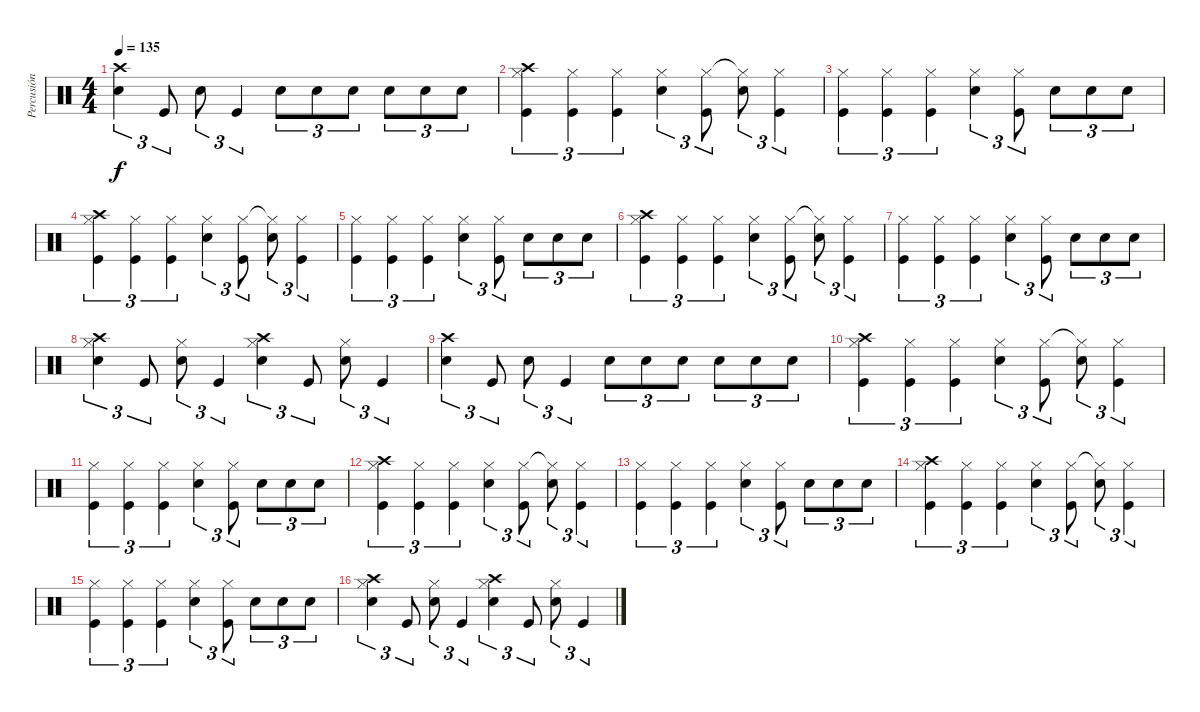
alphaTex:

\track ("Percusión" "Percusión") {instrument percussion}
\staff {score}
\articulation defaults
\ts (4 4)
\tempo 135
\clef neutral
\ks c
("Crash high (hit)" "Electric Snare (hit)").4{tu (3 2) dy f} "Kick (hit)".8{tu (3 2)} "Electric Snare (hit)".8{tu (3 2)} "Kick (hit)".4{tu (3 2)} "Electric Snare (hit)".8{tu (3 2)} "Electric Snare (hit)".8{tu (3 2)} "Electric Snare (hit)".8{tu (3 2)} "Electric Snare (hit)".8{tu (3 2)} "Electric Snare (hit)".8{tu (3 2)} "Electric Snare (hit)".8{tu (3 2)} |
("Hi-Hat (closed)" "Crash high (hit)" "Kick (hit)").4{tu (3 2)} ("Hi-Hat (closed)" "Kick (hit)").4{tu (3 2)} ("Hi-Hat (closed)" "Kick (hit)").4{tu (3 2)} ("Hi-Hat (closed)" "Electric Snare (hit)").4{tu (3 2)} ("Hi-Hat (closed)" "Kick (hit)").8{tu (3 2)} ("Hi-Hat (closed)"{t} "Electric Snare (hit)").8{tu (3 2)} ("Hi-Hat (closed)" "Kick (hit)").4{tu (3 2)} |
("Hi-Hat (closed)" "Kick (hit)").4{tu (3 2)} ("Hi-Hat (closed)" "Kick (hit)").4{tu (3 2)} ("Hi-Hat (closed)" "Kick (hit)").4{tu (3 2)} ("Hi-Hat (closed)" "Electric Snare (hit)").4{tu (3 2)} ("Hi-Hat (closed)" "Kick (hit)").8{tu (3 2)} "Electric Snare (hit)".8{tu (3 2)} "Electric Snare (hit)".8{tu (3 2)} "Electric Snare (hit)".8{tu (3 2)} |
("Hi-Hat (closed)" "Crash high (hit)" "Kick (hit)").4{tu (3 2)} ("Hi-Hat (closed)" "Kick (hit)").4{tu (3 2)} ("Hi-Hat (closed)" "Kick (hit)").4{tu (3 2)} ("Hi-Hat (closed)" "Electric Snare (hit)").4{tu (3 2)} ("Hi-Hat (closed)" "Kick (hit)").8{tu (3 2)} ("Hi-Hat (closed)"{t} "Electric Snare (hit)").8{tu (3 2)} ("Hi-Hat (closed)" "Kick (hit)").4{tu (3 2)} |
("Hi-Hat (closed)" "Kick (hit)").4{tu (3 2)} ("Hi-Hat (closed)" "Kick (hit)").4{tu (3 2)} ("Hi-Hat (closed)" "Kick (hit)").4{tu (3 2)} ("Hi-Hat (closed)" "Electric Snare (hit)").4{tu (3 2)} ("Hi-Hat (closed)" "Kick (hit)").8{tu (3 2)} "Electric Snare (hit)".8{tu (3 2)} "Electric Snare (hit)".8{tu (3 2)} "Electric Snare (hit)".8{tu (3 2)} |
("Hi-Hat (closed)" "Crash high (hit)" "Kick (hit)").4{tu (3 2)} ("Hi-Hat (closed)" "Kick (hit)").4{tu (3 2)} ("Hi-Hat (closed)" "Kick (hit)").4{tu (3 2)} ("Hi-Hat (closed)" "Electric Snare (hit)").4{tu (3 2)} ("Hi-Hat (closed)" "Kick (hit)").8{tu (3 2)} ("Hi-Hat (closed)"{t} "Electric Snare (hit)").8{tu (3 2)} ("Hi-Hat (closed)" "Kick (hit)").4{tu (3 2)} |
("Hi-Hat (closed)" "Kick (hit)").4{tu (3 2)} ("Hi-Hat (closed)" "Kick (hit)").4{tu (3 2)} ("Hi-Hat (closed)" "Kick (hit)").4{tu (3 2)} ("Hi-Hat (closed)" "Electric Snare (hit)").4{tu (3 2)} ("Hi-Hat (closed)" "Kick (hit)").8{tu (3 2)} "Electric Snare (hit)".8{tu (3 2)} "Electric Snare (hit)".8{tu (3 2)} "Electric Snare (hit)".8{tu (3 2)} |
("Hi-Hat (closed)" "Crash high (hit)" "Electric Snare (hit)").4{tu (3 2)} "Kick (hit)".8{tu (3 2)} ("Hi-Hat (closed)" "Electric Snare (hit)").8{tu (3 2)} "Kick (hit)".4{tu (3 2)} ("Hi-Hat (closed)" "Crash high (hit)" "Electric Snare (hit)").4{tu (3 2)} "Kick (hit)".8{tu (3 2)} ("Hi-Hat (closed)" "Electric Snare (hit)").8{tu (3 2)} "Kick (hit)".4{tu (3 2)} |
("Crash high (hit)" "Electric Snare (hit)").4{tu (3 2)} "Kick (hit)".8{tu (3 2)} "Electric Snare (hit)".8{tu (3 2)} "Kick (hit)".4{tu (3 2)} "Electric Snare (hit)".8{tu (3 2)} "Electric Snare (hit)".8{tu (3 2)} "Electric Snare (hit)".8{tu (3 2)} "Electric Snare (hit)".8{tu (3 2)} "Electric Snare (hit)".8{tu (3 2)} "Electric Snare (hit)".8{tu (3 2)} |
("Hi-Hat (closed)" "Crash high (hit)" "Kick (hit)").4{tu (3 2)} ("Hi-Hat (closed)" "Kick (hit)").4{tu (3 2)} ("Hi-Hat (closed)" "Kick (hit)").4{tu (3 2)} ("Hi-Hat (closed)" "Electric Snare (hit)").4{tu (3 2)} ("Hi-Hat (closed)" "Kick (hit)").8{tu (3 2)} ("Hi-Hat (closed)"{t} "Electric Snare (hit)").8{tu (3 2)} ("Hi-Hat (closed)" "Kick (hit)").4{tu (3 2)} |
("Hi-Hat (closed)" "Kick (hit)").4{tu (3 2)} ("Hi-Hat (closed)" "Kick (hit)").4{tu (3 2)} ("Hi-Hat (closed)" "Kick (hit)").4{tu (3 2)} ("Hi-Hat (closed)" "Electric Snare (hit)").4{tu (3 2)} ("Hi-Hat (closed)" "Kick (hit)").8{tu (3 2)} "Electric Snare (hit)".8{tu (3 2)} "Electric Snare (hit)".8{tu (3 2)} "Electric Snare (hit)".8{tu (3 2)} |
("Hi-Hat (closed)" "Crash high (hit)" "Kick (hit)").4{tu (3 2)} ("Hi-Hat (closed)" "Kick (hit)").4{tu (3 2)} ("Hi-Hat (closed)" "Kick (hit)").4{tu (3 2)} ("Hi-Hat (closed)" "Electric Snare (hit)").4{tu (3 2)} ("Hi-Hat (closed)" "Kick (hit)").8{tu (3 2)} ("Hi-Hat (closed)"{t} "Electric Snare (hit)").8{tu (3 2)} ("Hi-Hat (closed)" "Kick (hit)").4{tu (3 2)} |
("Hi-Hat (closed)" "Kick (hit)").4{tu (3 2)} ("Hi-Hat (closed)" "Kick (hit)").4{tu (3 2)} ("Hi-Hat (closed)" "Kick (hit)").4{tu (3 2)} ("Hi-Hat (closed)" "Electric Snare (hit)").4{tu (3 2)} ("Hi-Hat (closed)" "Kick (hit)").8{tu (3 2)} "Electric Snare (hit)".8{tu (3 2)} "Electric Snare (hit)".8{tu (3 2)} "Electric Snare (hit)".8{tu (3 2)} |
("Hi-Hat (closed)" "Crash high (hit)" "Kick (hit)").4{tu (3 2)} ("Hi-Hat (closed)" "Kick (hit)").4{tu (3 2)} ("Hi-Hat (closed)" "Kick (hit)").4{tu (3 2)} ("Hi-Hat (closed)" "Electric Snare (hit)").4{tu (3 2)} ("Hi-Hat (closed)" "Kick (hit)").8{tu (3 2)} ("Hi-Hat (closed)"{t} "Electric Snare (hit)").8{tu (3 2)} ("Hi-Hat (closed)" "Kick (hit)").4{tu (3 2)} |
("Hi-Hat (closed)" "Kick (hit)").4{tu (3 2)} ("Hi-Hat (closed)" "Kick (hit)").4{tu (3 2)} ("Hi-Hat (closed)" "Kick (hit)").4{tu (3 2)} ("Hi-Hat (closed)" "Electric Snare (hit)").4{tu (3 2)} ("Hi-Hat (closed)" "Kick (hit)").8{tu (3 2)} "Electric Snare (hit)".8{tu (3 2)} "Electric Snare (hit)".8{tu (3 2)} "Electric Snare (hit)".8{tu (3 2)} |
("Hi-Hat (closed)" "Crash high (hit)" "Electric Snare (hit)").4{tu (3 2)} "Kick (hit)".8{tu (3 2)} ("Hi-Hat (closed)" "Electric Snare (hit)").8{tu (3 2)} "Kick (hit)".4{tu (3 2)} ("Hi-Hat (closed)" "Crash high (hit)" "Electric Snare (hit)").4{tu (3 2)} "Kick (hit)".8{tu (3 2)} ("Hi-Hat (closed)" "Electric Snare (hit)").8{tu (3 2)} "Kick (hit)".4{tu (3 2)}
